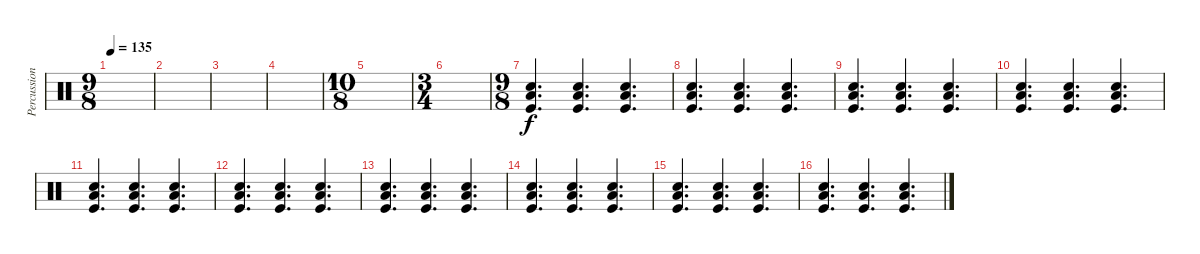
\track ("Percussion" "Percussion") {instrument percussion}
\staff {score}
\articulation defaults
\ts (9 8)
\tempo 135
\clef neutral
\ks c
|
|
|
|
\ts (10 8)
|
\ts (3 4)
|
\ts (9 8)
("Electric Snare (hit)" "Low Floor Tom (hit)" "Kick (hit)").4{d volume 0} ("Electric Snare (hit)" "Low Floor Tom (hit)" "Kick (hit)").4{d} ("Electric Snare (hit)" "Low Floor Tom (hit)" "Kick (hit)").4{d} |
("Electric Snare (hit)" "Low Floor Tom (hit)" "Kick (hit)").4{d volume 5} ("Electric Snare (hit)" "Low Floor Tom (hit)" "Kick (hit)").4{d} ("Electric Snare (hit)" "Low Floor Tom (hit)" "Kick (hit)").4{d} |
("Electric Snare (hit)" "Low Floor Tom (hit)" "Kick (hit)").4{d} ("Electric Snare (hit)" "Low Floor Tom (hit)" "Kick (hit)").4{d} ("Electric Snare (hit)" "Low Floor Tom (hit)" "Kick (hit)").4{d} |
("Electric Snare (hit)" "Low Floor Tom (hit)" "Kick (hit)").4{d} ("Electric Snare (hit)" "Low Floor Tom (hit)" "Kick (hit)").4{d} ("Electric Snare (hit)" "Low Floor Tom (hit)" "Kick (hit)").4{d} |
("Electric Snare (hit)" "Low Floor Tom (hit)" "Kick (hit)").4{d} ("Electric Snare (hit)" "Low Floor Tom (hit)" "Kick (hit)").4{d} ("Electric Snare (hit)" "Low Floor Tom (hit)" "Kick (hit)").4{d} |
("Electric Snare (hit)" "Low Floor Tom (hit)" "Kick (hit)").4{d volume 9} ("Electric Snare (hit)" "Low Floor Tom (hit)" "Kick (hit)").4{d} ("Electric Snare (hit)" "Low Floor Tom (hit)" "Kick (hit)").4{d} |
("Electric Snare (hit)" "Low Floor Tom (hit)" "Kick (hit)").4{d} ("Electric Snare (hit)" "Low Floor Tom (hit)" "Kick (hit)").4{d} ("Electric Snare (hit)" "Low Floor Tom (hit)" "Kick (hit)").4{d} |
("Electric Snare (hit)" "Low Floor Tom (hit)" "Kick (hit)").4{d} ("Electric Snare (hit)" "Low Floor Tom (hit)" "Kick (hit)").4{d} ("Electric Snare (hit)" "Low Floor Tom (hit)" "Kick (hit)").4{d} |
("Electric Snare (hit)" "Low Floor Tom (hit)" "Kick (hit)").4{d} ("Electric Snare (hit)" "Low Floor Tom (hit)" "Kick (hit)").4{d} ("Electric Snare (hit)" "Low Floor Tom (hit)" "Kick (hit)").4{d} |
("Electric Snare (hit)" "Low Floor Tom (hit)" "Kick (hit)").4{d volume 13} ("Electric Snare (hit)" "Low Floor Tom (hit)" "Kick (hit)").4{d} ("Electric Snare (hit)" "Low Floor Tom (hit)" "Kick (hit)").4{d}
